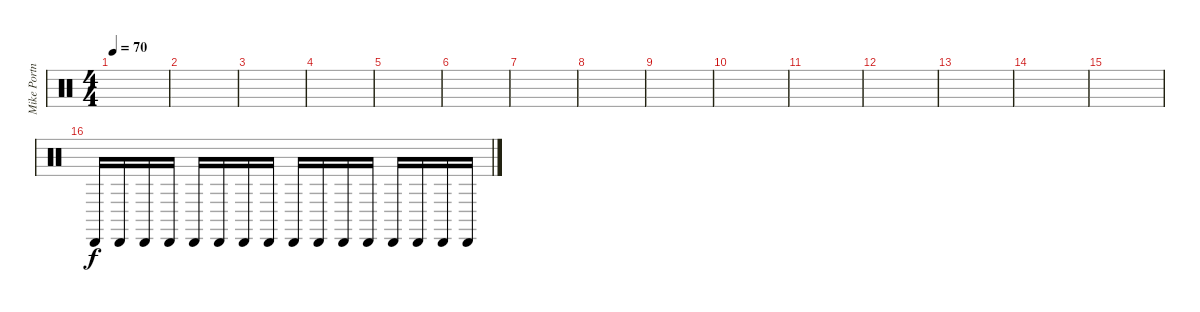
\track ("Mike Portnoy" "Mike Portn") {instrument percussion}
\staff {score}
\articulation defaults
\ts (4 4)
\tempo 70
\clef neutral
\ks c
|
|
|
|
|
|
|
|
|
|
|
|
|
|
|
"Cabasa (hit)".16 "Cabasa (hit)".16 "Cabasa (hit)".16 "Cabasa (hit)".16 "Cabasa (hit)".16 "Cabasa (hit)".16 "Cabasa (hit)".16 "Cabasa (hit)".16 "Cabasa (hit)".16 "Cabasa (hit)".16 "Cabasa (hit)".16 "Cabasa (hit)".16 "Cabasa (hit)".16 "Cabasa (hit)".16 "Cabasa (hit)".16 "Cabasa (hit)".16
